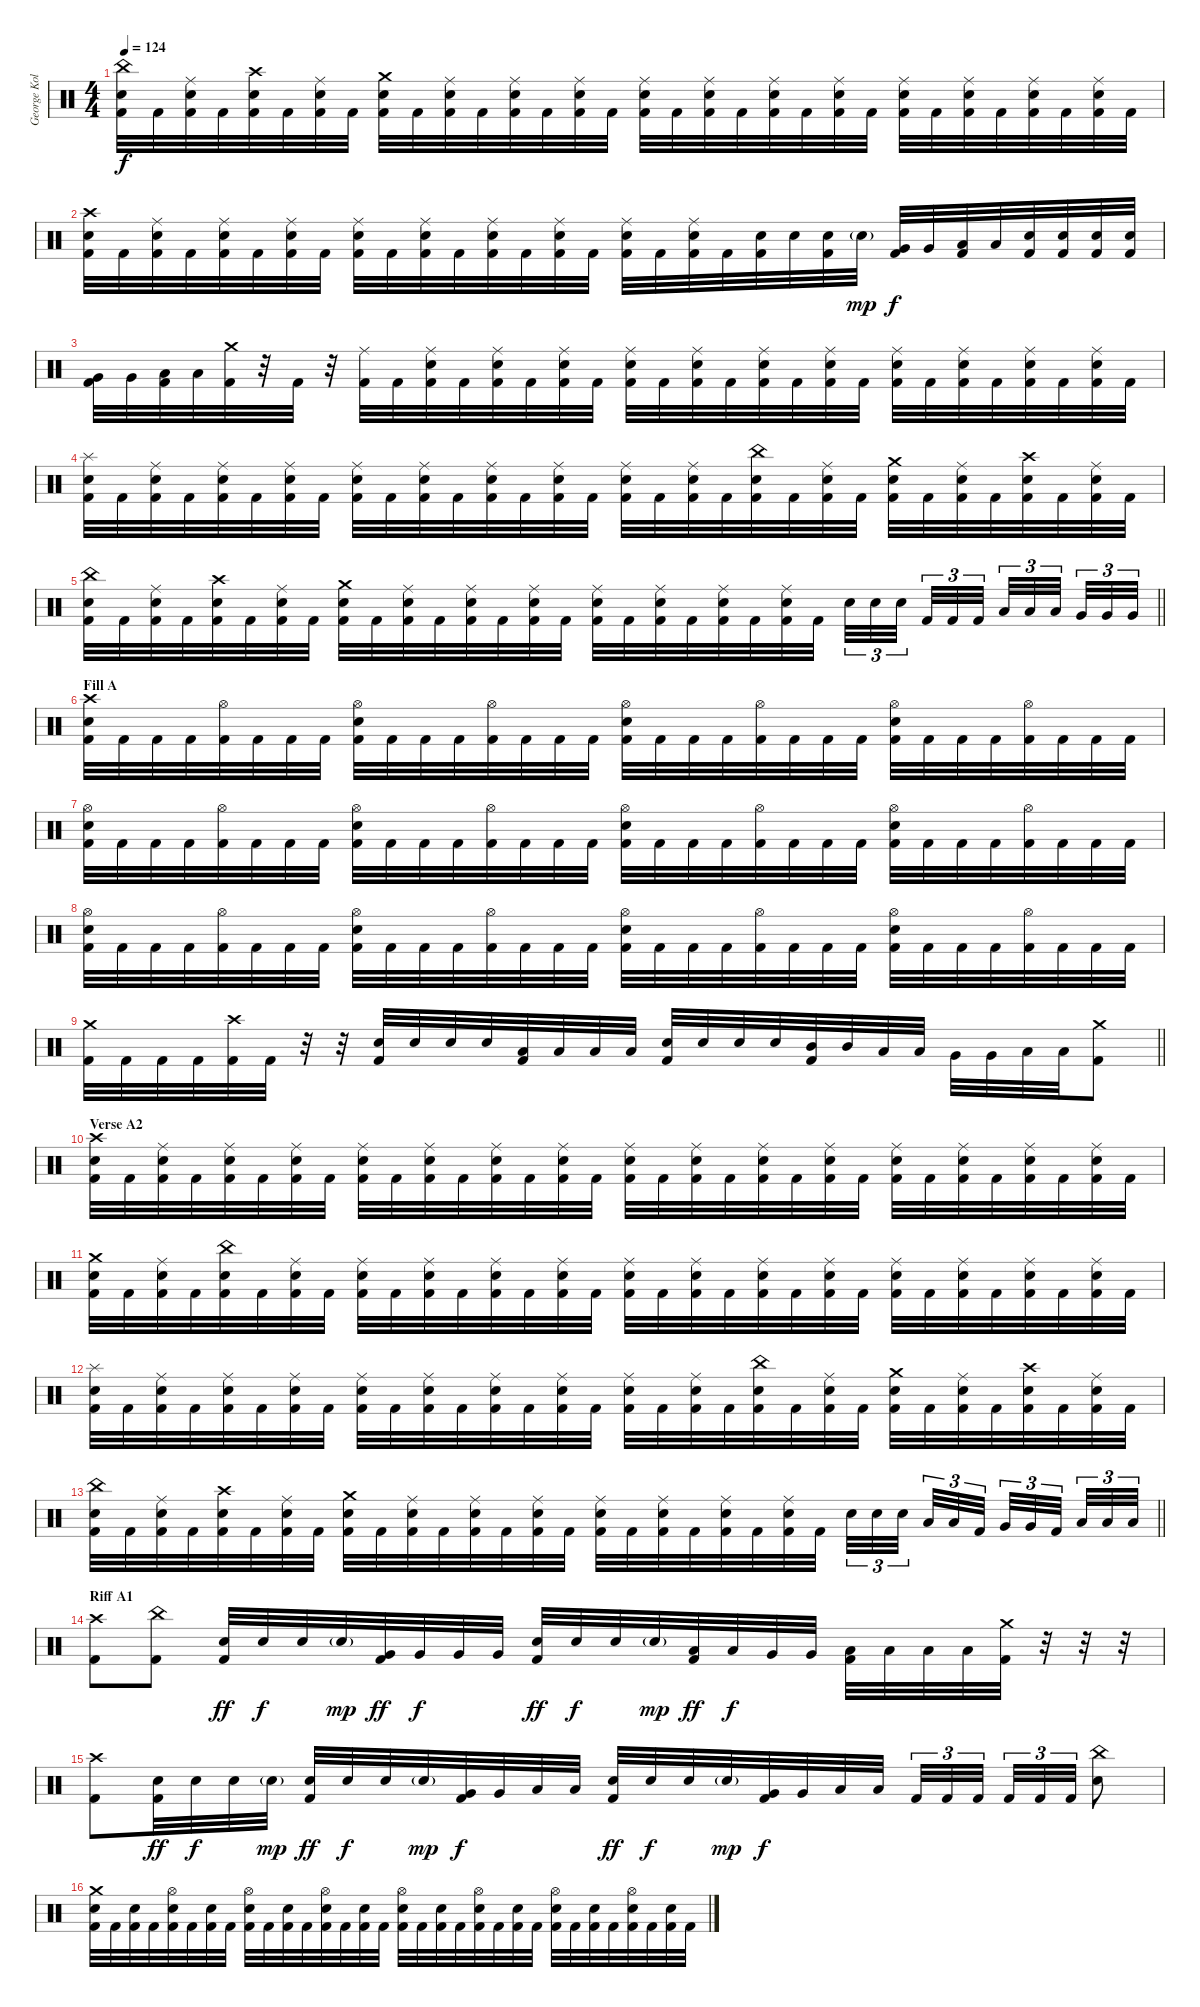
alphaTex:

\track ("George Kollias" "George Kol") {instrument percussion}
\staff {score}
\articulation defaults
\ts (4 4)
\tempo 124
\clef neutral
\ks c
("China (hit)" "Electric Snare (hit)" "Kick (hit) 2").32{dy f} "Kick (hit) 2".32 ("Ride (middle)" "Electric Snare (hit)" "Kick (hit) 2").32 "Kick (hit) 2".32 ("Crash high (hit)" "Electric Snare (hit)" "Kick (hit) 2").32 "Kick (hit) 2".32 ("Ride (middle)" "Electric Snare (hit)" "Kick (hit) 2").32 "Kick (hit) 2".32 ("Crash medium (hit)" "Electric Snare (hit)" "Kick (hit) 2").32 "Kick (hit) 2".32 ("Ride (middle)" "Electric Snare (hit)" "Kick (hit) 2").32 "Kick (hit) 2".32 ("Ride (middle)" "Electric Snare (hit)" "Kick (hit) 2").32 "Kick (hit) 2".32 ("Ride (middle)" "Electric Snare (hit)" "Kick (hit) 2").32 "Kick (hit) 2".32 ("Ride (middle)" "Electric Snare (hit)" "Kick (hit) 2").32 "Kick (hit) 2".32 ("Ride (middle)" "Electric Snare (hit)" "Kick (hit) 2").32 "Kick (hit) 2".32 ("Ride (middle)" "Electric Snare (hit)" "Kick (hit) 2").32 "Kick (hit) 2".32 ("Ride (middle)" "Electric Snare (hit)" "Kick (hit) 2").32 "Kick (hit) 2".32 ("Ride (middle)" "Electric Snare (hit)" "Kick (hit) 2").32 "Kick (hit) 2".32 ("Ride (middle)" "Electric Snare (hit)" "Kick (hit) 2").32 "Kick (hit) 2".32 ("Ride (middle)" "Electric Snare (hit)" "Kick (hit) 2").32 "Kick (hit) 2".32 ("Ride (middle)" "Electric Snare (hit)" "Kick (hit) 2").32 "Kick (hit) 2".32 |
("Crash high (hit)" "Electric Snare (hit)" "Kick (hit) 2").32 "Kick (hit) 2".32 ("Ride (middle)" "Electric Snare (hit)" "Kick (hit) 2").32 "Kick (hit) 2".32 ("Ride (middle)" "Electric Snare (hit)" "Kick (hit) 2").32 "Kick (hit) 2".32 ("Ride (middle)" "Electric Snare (hit)" "Kick (hit) 2").32 "Kick (hit) 2".32 ("Ride (middle)" "Electric Snare (hit)" "Kick (hit) 2").32 "Kick (hit) 2".32 ("Ride (middle)" "Electric Snare (hit)" "Kick (hit) 2").32 "Kick (hit) 2".32 ("Ride (middle)" "Electric Snare (hit)" "Kick (hit) 2").32 "Kick (hit) 2".32 ("Ride (middle)" "Electric Snare (hit)" "Kick (hit) 2").32 "Kick (hit) 2".32 ("Ride (middle)" "Electric Snare (hit)" "Kick (hit) 2").32 "Kick (hit) 2".32 ("Ride (middle)" "Electric Snare (hit)" "Kick (hit) 2").32 "Kick (hit) 2".32 ("Electric Snare (hit)" "Kick (hit) 2").32 "Electric Snare (hit)".32 ("Electric Snare (hit)" "Kick (hit) 2").32 "Electric Snare (hit)"{g}.32{dy mp} ("Very Low Tom (hit)" "Kick (hit) 2").32{dy f} "Very Low Tom (hit)".32 ("Low Floor Tom (hit)" "Kick (hit) 2").32 "Low Floor Tom (hit)".32 ("Electric Snare (hit)" "Kick (hit) 2").32 ("Electric Snare (hit)" "Kick (hit) 2").32 ("Electric Snare (hit)" "Kick (hit) 2").32 ("Electric Snare (hit)" "Kick (hit) 2").32 |
("Very Low Tom (hit)" "Kick (hit) 2").32 "Very Low Tom (hit)".32 ("Low Floor Tom (hit)" "Kick (hit) 2").32 "Low Floor Tom (hit)".32 ("Crash medium (hit)" "Kick (hit) 2").32 r.32 "Kick (hit) 2".32 r.32 ("Ride (middle)" "Kick (hit) 2").32 "Kick (hit) 2".32 ("Ride (middle)" "Electric Snare (hit)" "Kick (hit) 2").32 "Kick (hit) 2".32 ("Ride (middle)" "Electric Snare (hit)" "Kick (hit) 2").32 "Kick (hit) 2".32 ("Ride (middle)" "Electric Snare (hit)" "Kick (hit) 2").32 "Kick (hit) 2".32 ("Ride (middle)" "Electric Snare (hit)" "Kick (hit) 2").32 "Kick (hit) 2".32 ("Ride (middle)" "Electric Snare (hit)" "Kick (hit) 2").32 "Kick (hit) 2".32 ("Ride (middle)" "Electric Snare (hit)" "Kick (hit) 2").32 "Kick (hit) 2".32 ("Ride (middle)" "Electric Snare (hit)" "Kick (hit) 2").32 "Kick (hit) 2".32 ("Ride (middle)" "Electric Snare (hit)" "Kick (hit) 2").32 "Kick (hit) 2".32 ("Ride (middle)" "Electric Snare (hit)" "Kick (hit) 2").32 "Kick (hit) 2".32 ("Ride (middle)" "Electric Snare (hit)" "Kick (hit) 2").32 "Kick (hit) 2".32 ("Ride (middle)" "Electric Snare (hit)" "Kick (hit) 2").32 "Kick (hit) 2".32 |
("Splash (hit)" "Electric Snare (hit)" "Kick (hit) 2").32 "Kick (hit) 2".32 ("Ride (middle)" "Electric Snare (hit)" "Kick (hit) 2").32 "Kick (hit) 2".32 ("Ride (middle)" "Electric Snare (hit)" "Kick (hit) 2").32 "Kick (hit) 2".32 ("Ride (middle)" "Electric Snare (hit)" "Kick (hit) 2").32 "Kick (hit) 2".32 ("Ride (middle)" "Electric Snare (hit)" "Kick (hit) 2").32 "Kick (hit) 2".32 ("Ride (middle)" "Electric Snare (hit)" "Kick (hit) 2").32 "Kick (hit) 2".32 ("Ride (middle)" "Electric Snare (hit)" "Kick (hit) 2").32 "Kick (hit) 2".32 ("Ride (middle)" "Electric Snare (hit)" "Kick (hit) 2").32 "Kick (hit) 2".32 ("Ride (middle)" "Electric Snare (hit)" "Kick (hit) 2").32 "Kick (hit) 2".32 ("Ride (middle)" "Electric Snare (hit)" "Kick (hit) 2").32 "Kick (hit) 2".32 ("China (hit)" "Electric Snare (hit)" "Kick (hit) 2").32 "Kick (hit) 2".32 ("Ride (middle)" "Electric Snare (hit)" "Kick (hit) 2").32 "Kick (hit) 2".32 ("Crash medium (hit)" "Electric Snare (hit)" "Kick (hit) 2").32 "Kick (hit) 2".32 ("Ride (middle)" "Electric Snare (hit)" "Kick (hit) 2").32 "Kick (hit) 2".32 ("Crash high (hit)" "Electric Snare (hit)" "Kick (hit) 2").32 "Kick (hit) 2".32 ("Ride (middle)" "Electric Snare (hit)" "Kick (hit) 2").32 "Kick (hit) 2".32 |
\barLineRight lightlight
("China (hit)" "Electric Snare (hit)" "Kick (hit) 2").32 "Kick (hit) 2".32 ("Ride (middle)" "Electric Snare (hit)" "Kick (hit) 2").32 "Kick (hit) 2".32 ("Crash high (hit)" "Electric Snare (hit)" "Kick (hit) 2").32 "Kick (hit) 2".32 ("Ride (middle)" "Electric Snare (hit)" "Kick (hit) 2").32 "Kick (hit) 2".32 ("Crash medium (hit)" "Electric Snare (hit)" "Kick (hit) 2").32 "Kick (hit) 2".32 ("Ride (middle)" "Electric Snare (hit)" "Kick (hit) 2").32 "Kick (hit) 2".32 ("Ride (middle)" "Electric Snare (hit)" "Kick (hit) 2").32 "Kick (hit) 2".32 ("Ride (middle)" "Electric Snare (hit)" "Kick (hit) 2").32 "Kick (hit) 2".32 ("Ride (middle)" "Electric Snare (hit)" "Kick (hit) 2").32 "Kick (hit) 2".32 ("Ride (middle)" "Electric Snare (hit)" "Kick (hit) 2").32 "Kick (hit) 2".32 ("Ride (middle)" "Electric Snare (hit)" "Kick (hit) 2").32 "Kick (hit) 2".32 ("Ride (middle)" "Electric Snare (hit)" "Kick (hit) 2").32 "Kick (hit) 2".32 "Electric Snare (hit)".32{tu (3 2)} "Electric Snare (hit)".32{tu (3 2)} "Electric Snare (hit)".32{tu (3 2) beam splitsecondary} "Kick (hit) 2".32{tu (3 2)} "Kick (hit) 2".32{tu (3 2)} "Kick (hit) 2".32{tu (3 2) beam splitsecondary} "Low Tom (hit)".32{tu (3 2)} "Low Tom (hit)".32{tu (3 2)} "Low Tom (hit)".32{tu (3 2) beam splitsecondary} "Very Low Tom (hit)".32{tu (3 2)} "Very Low Tom (hit)".32{tu (3 2)} "Very Low Tom (hit)".32{tu (3 2)} |
\section ("" "Fill A")
("Crash high (hit)" "Electric Snare (hit)" "Kick (hit) 2").32 "Kick (hit) 2".32 "Kick (hit) 2".32 "Kick (hit) 2".32 ("Hi-Hat (open)" "Kick (hit) 2").32 "Kick (hit) 2".32 "Kick (hit) 2".32 "Kick (hit) 2".32 ("Hi-Hat (open)" "Electric Snare (hit)" "Kick (hit) 2").32 "Kick (hit) 2".32 "Kick (hit) 2".32 "Kick (hit) 2".32 ("Hi-Hat (open)" "Kick (hit) 2").32 "Kick (hit) 2".32 "Kick (hit) 2".32 "Kick (hit) 2".32 ("Hi-Hat (open)" "Electric Snare (hit)" "Kick (hit) 2").32 "Kick (hit) 2".32 "Kick (hit) 2".32 "Kick (hit) 2".32 ("Hi-Hat (open)" "Kick (hit) 2").32 "Kick (hit) 2".32 "Kick (hit) 2".32 "Kick (hit) 2".32 ("Hi-Hat (open)" "Electric Snare (hit)" "Kick (hit) 2").32 "Kick (hit) 2".32 "Kick (hit) 2".32 "Kick (hit) 2".32 ("Hi-Hat (open)" "Kick (hit) 2").32 "Kick (hit) 2".32 "Kick (hit) 2".32 "Kick (hit) 2".32 |
("Hi-Hat (open)" "Electric Snare (hit)" "Kick (hit) 2").32 "Kick (hit) 2".32 "Kick (hit) 2".32 "Kick (hit) 2".32 ("Hi-Hat (open)" "Kick (hit) 2").32 "Kick (hit) 2".32 "Kick (hit) 2".32 "Kick (hit) 2".32 ("Hi-Hat (open)" "Electric Snare (hit)" "Kick (hit) 2").32 "Kick (hit) 2".32 "Kick (hit) 2".32 "Kick (hit) 2".32 ("Hi-Hat (open)" "Kick (hit) 2").32 "Kick (hit) 2".32 "Kick (hit) 2".32 "Kick (hit) 2".32 ("Hi-Hat (open)" "Electric Snare (hit)" "Kick (hit) 2").32 "Kick (hit) 2".32 "Kick (hit) 2".32 "Kick (hit) 2".32 ("Hi-Hat (open)" "Kick (hit) 2").32 "Kick (hit) 2".32 "Kick (hit) 2".32 "Kick (hit) 2".32 ("Hi-Hat (open)" "Electric Snare (hit)" "Kick (hit) 2").32 "Kick (hit) 2".32 "Kick (hit) 2".32 "Kick (hit) 2".32 ("Hi-Hat (open)" "Kick (hit) 2").32 "Kick (hit) 2".32 "Kick (hit) 2".32 "Kick (hit) 2".32 |
("Hi-Hat (open)" "Electric Snare (hit)" "Kick (hit) 2").32 "Kick (hit) 2".32 "Kick (hit) 2".32 "Kick (hit) 2".32 ("Hi-Hat (open)" "Kick (hit) 2").32 "Kick (hit) 2".32 "Kick (hit) 2".32 "Kick (hit) 2".32 ("Hi-Hat (open)" "Electric Snare (hit)" "Kick (hit) 2").32 "Kick (hit) 2".32 "Kick (hit) 2".32 "Kick (hit) 2".32 ("Hi-Hat (open)" "Kick (hit) 2").32 "Kick (hit) 2".32 "Kick (hit) 2".32 "Kick (hit) 2".32 ("Hi-Hat (open)" "Electric Snare (hit)" "Kick (hit) 2").32 "Kick (hit) 2".32 "Kick (hit) 2".32 "Kick (hit) 2".32 ("Hi-Hat (open)" "Kick (hit) 2").32 "Kick (hit) 2".32 "Kick (hit) 2".32 "Kick (hit) 2".32 ("Hi-Hat (open)" "Electric Snare (hit)" "Kick (hit) 2").32 "Kick (hit) 2".32 "Kick (hit) 2".32 "Kick (hit) 2".32 ("Hi-Hat (open)" "Kick (hit) 2").32 "Kick (hit) 2".32 "Kick (hit) 2".32 "Kick (hit) 2".32 |
\barLineRight lightlight
("Crash medium (hit)" "Kick (hit) 2").32 "Kick (hit) 2".32 "Kick (hit) 2".32 "Kick (hit) 2".32 ("Crash high (hit)" "Kick (hit) 2").32 "Kick (hit) 2".32 r.32 r.32 ("Electric Snare (hit)" "Kick (hit) 2").32 "Electric Snare (hit)".32 "Electric Snare (hit)".32 "Electric Snare (hit)".32 ("Low Tom (hit)" "Kick (hit) 2").32 "Low Tom (hit)".32 "Low Tom (hit)".32 "Low Tom (hit)".32 ("Electric Snare (hit)" "Kick (hit) 2").32 "Electric Snare (hit)".32 "Electric Snare (hit)".32 "Electric Snare (hit)".32 ("Mid Tom (hit)" "Kick (hit) 2").32 "Mid Tom (hit)".32 "Low Tom (hit)".32 "Low Tom (hit)".32 "Very Low Tom (hit)".32 "Very Low Tom (hit)".32 "Low Floor Tom (hit)".32 "Low Floor Tom (hit)".32 ("Crash medium (hit)" "Kick (hit) 2").8 |
\section ("" "Verse A2")
("Crash high (hit)" "Electric Snare (hit)" "Kick (hit) 2").32 "Kick (hit) 2".32 ("Ride (middle)" "Electric Snare (hit)" "Kick (hit) 2").32 "Kick (hit) 2".32 ("Ride (middle)" "Electric Snare (hit)" "Kick (hit) 2").32 "Kick (hit) 2".32 ("Ride (middle)" "Electric Snare (hit)" "Kick (hit) 2").32 "Kick (hit) 2".32 ("Ride (middle)" "Electric Snare (hit)" "Kick (hit) 2").32 "Kick (hit) 2".32 ("Ride (middle)" "Electric Snare (hit)" "Kick (hit) 2").32 "Kick (hit) 2".32 ("Ride (middle)" "Electric Snare (hit)" "Kick (hit) 2").32 "Kick (hit) 2".32 ("Ride (middle)" "Electric Snare (hit)" "Kick (hit) 2").32 "Kick (hit) 2".32 ("Ride (middle)" "Electric Snare (hit)" "Kick (hit) 2").32 "Kick (hit) 2".32 ("Ride (middle)" "Electric Snare (hit)" "Kick (hit) 2").32 "Kick (hit) 2".32 ("Ride (middle)" "Electric Snare (hit)" "Kick (hit) 2").32 "Kick (hit) 2".32 ("Ride (middle)" "Electric Snare (hit)" "Kick (hit) 2").32 "Kick (hit) 2".32 ("Ride (middle)" "Electric Snare (hit)" "Kick (hit) 2").32 "Kick (hit) 2".32 ("Ride (middle)" "Electric Snare (hit)" "Kick (hit) 2").32 "Kick (hit) 2".32 ("Ride (middle)" "Electric Snare (hit)" "Kick (hit) 2").32 "Kick (hit) 2".32 ("Ride (middle)" "Electric Snare (hit)" "Kick (hit) 2").32 "Kick (hit) 2".32 |
("Crash medium (hit)" "Electric Snare (hit)" "Kick (hit) 2").32 "Kick (hit) 2".32 ("Ride (middle)" "Electric Snare (hit)" "Kick (hit) 2").32 "Kick (hit) 2".32 ("China (hit)" "Electric Snare (hit)" "Kick (hit) 2").32 "Kick (hit) 2".32 ("Ride (middle)" "Electric Snare (hit)" "Kick (hit) 2").32 "Kick (hit) 2".32 ("Ride (middle)" "Electric Snare (hit)" "Kick (hit) 2").32 "Kick (hit) 2".32 ("Ride (middle)" "Electric Snare (hit)" "Kick (hit) 2").32 "Kick (hit) 2".32 ("Ride (middle)" "Electric Snare (hit)" "Kick (hit) 2").32 "Kick (hit) 2".32 ("Ride (middle)" "Electric Snare (hit)" "Kick (hit) 2").32 "Kick (hit) 2".32 ("Ride (middle)" "Electric Snare (hit)" "Kick (hit) 2").32 "Kick (hit) 2".32 ("Ride (middle)" "Electric Snare (hit)" "Kick (hit) 2").32 "Kick (hit) 2".32 ("Ride (middle)" "Electric Snare (hit)" "Kick (hit) 2").32 "Kick (hit) 2".32 ("Ride (middle)" "Electric Snare (hit)" "Kick (hit) 2").32 "Kick (hit) 2".32 ("Ride (middle)" "Electric Snare (hit)" "Kick (hit) 2").32 "Kick (hit) 2".32 ("Ride (middle)" "Electric Snare (hit)" "Kick (hit) 2").32 "Kick (hit) 2".32 ("Ride (middle)" "Electric Snare (hit)" "Kick (hit) 2").32 "Kick (hit) 2".32 ("Ride (middle)" "Electric Snare (hit)" "Kick (hit) 2").32 "Kick (hit) 2".32 |
("Splash (hit)" "Electric Snare (hit)" "Kick (hit) 2").32 "Kick (hit) 2".32 ("Ride (middle)" "Electric Snare (hit)" "Kick (hit) 2").32 "Kick (hit) 2".32 ("Ride (middle)" "Electric Snare (hit)" "Kick (hit) 2").32 "Kick (hit) 2".32 ("Ride (middle)" "Electric Snare (hit)" "Kick (hit) 2").32 "Kick (hit) 2".32 ("Ride (middle)" "Electric Snare (hit)" "Kick (hit) 2").32 "Kick (hit) 2".32 ("Ride (middle)" "Electric Snare (hit)" "Kick (hit) 2").32 "Kick (hit) 2".32 ("Ride (middle)" "Electric Snare (hit)" "Kick (hit) 2").32 "Kick (hit) 2".32 ("Ride (middle)" "Electric Snare (hit)" "Kick (hit) 2").32 "Kick (hit) 2".32 ("Ride (middle)" "Electric Snare (hit)" "Kick (hit) 2").32 "Kick (hit) 2".32 ("Ride (middle)" "Electric Snare (hit)" "Kick (hit) 2").32 "Kick (hit) 2".32 ("China (hit)" "Electric Snare (hit)" "Kick (hit) 2").32 "Kick (hit) 2".32 ("Ride (middle)" "Electric Snare (hit)" "Kick (hit) 2").32 "Kick (hit) 2".32 ("Crash medium (hit)" "Electric Snare (hit)" "Kick (hit) 2").32 "Kick (hit) 2".32 ("Ride (middle)" "Electric Snare (hit)" "Kick (hit) 2").32 "Kick (hit) 2".32 ("Crash high (hit)" "Electric Snare (hit)" "Kick (hit) 2").32 "Kick (hit) 2".32 ("Ride (middle)" "Electric Snare (hit)" "Kick (hit) 2").32 "Kick (hit) 2".32 |
\barLineRight lightlight
("China (hit)" "Electric Snare (hit)" "Kick (hit) 2").32 "Kick (hit) 2".32 ("Ride (middle)" "Electric Snare (hit)" "Kick (hit) 2").32 "Kick (hit) 2".32 ("Crash high (hit)" "Electric Snare (hit)" "Kick (hit) 2").32 "Kick (hit) 2".32 ("Ride (middle)" "Electric Snare (hit)" "Kick (hit) 2").32 "Kick (hit) 2".32 ("Crash medium (hit)" "Electric Snare (hit)" "Kick (hit) 2").32 "Kick (hit) 2".32 ("Ride (middle)" "Electric Snare (hit)" "Kick (hit) 2").32 "Kick (hit) 2".32 ("Ride (middle)" "Electric Snare (hit)" "Kick (hit) 2").32 "Kick (hit) 2".32 ("Ride (middle)" "Electric Snare (hit)" "Kick (hit) 2").32 "Kick (hit) 2".32 ("Ride (middle)" "Electric Snare (hit)" "Kick (hit) 2").32 "Kick (hit) 2".32 ("Ride (middle)" "Electric Snare (hit)" "Kick (hit) 2").32 "Kick (hit) 2".32 ("Ride (middle)" "Electric Snare (hit)" "Kick (hit) 2").32 "Kick (hit) 2".32 ("Ride (middle)" "Electric Snare (hit)" "Kick (hit) 2").32 "Kick (hit) 2".32 "Electric Snare (hit)".32{tu (3 2)} "Electric Snare (hit)".32{tu (3 2)} "Electric Snare (hit)".32{tu (3 2) beam splitsecondary} "Low Tom (hit)".32{tu (3 2)} "Low Tom (hit)".32{tu (3 2)} "Kick (hit) 2".32{tu (3 2) beam splitsecondary} "Very Low Tom (hit)".32{tu (3 2)} "Very Low Tom (hit)".32{tu (3 2)} "Kick (hit) 2".32{tu (3 2) beam splitsecondary} "Low Floor Tom (hit)".32{tu (3 2)} "Low Floor Tom (hit)".32{tu (3 2)} "Low Floor Tom (hit)".32{tu (3 2)} |
\section ("" "Riff A1")
("Crash high (hit)" "Kick (hit) 2").8 ("China (hit)" "Kick (hit) 2").8 ("Electric Snare (hit)" "Kick (hit) 2").32{dy ff} "Electric Snare (hit)".32{dy f} "Electric Snare (hit)".32 "Electric Snare (hit)"{g}.32{dy mp} ("Very Low Tom (hit)" "Kick (hit) 2").32{dy ff} "Very Low Tom (hit)".32{dy f} "Very Low Tom (hit)".32 "Very Low Tom (hit)".32 ("Electric Snare (hit)" "Kick (hit) 2").32{dy ff} "Electric Snare (hit)".32{dy f} "Electric Snare (hit)".32 "Electric Snare (hit)"{g}.32{dy mp} ("Low Tom (hit)" "Kick (hit) 2").32{dy ff} "Low Tom (hit)".32{dy f} "Very Low Tom (hit)".32 "Very Low Tom (hit)".32 ("Low Floor Tom (hit)" "Kick (hit) 2").32 "Low Floor Tom (hit)".32 "Low Floor Tom (hit)".32 "Low Floor Tom (hit)".32 ("Crash medium (hit)" "Kick (hit) 2").32 r.32 r.32 r.32 |
("Crash high (hit)" "Kick (hit) 2").8 ("Electric Snare (hit)" "Kick (hit) 2").32{dy ff} "Electric Snare (hit)".32{dy f} "Electric Snare (hit)".32 "Electric Snare (hit)"{g}.32{dy mp} ("Electric Snare (hit)" "Kick (hit) 2").32{dy ff} "Electric Snare (hit)".32{dy f} "Electric Snare (hit)".32 "Electric Snare (hit)"{g}.32{dy mp} ("Very Low Tom (hit)" "Kick (hit) 2").32{dy f} "Very Low Tom (hit)".32 "Low Floor Tom (hit)".32 "Low Floor Tom (hit)".32 ("Electric Snare (hit)" "Kick (hit) 2").32{dy ff} "Electric Snare (hit)".32{dy f} "Electric Snare (hit)".32 "Electric Snare (hit)"{g}.32{dy mp} ("Very Low Tom (hit)" "Kick (hit) 2").32{dy f} "Very Low Tom (hit)".32 "Low Floor Tom (hit)".32 "Low Floor Tom (hit)".32 "Kick (hit) 2".32{tu (3 2)} "Kick (hit) 2".32{tu (3 2)} "Kick (hit) 2".32{tu (3 2) beam splitsecondary} "Kick (hit) 2".32{tu (3 2)} "Kick (hit) 2".32{tu (3 2)} "Kick (hit) 2".32{tu (3 2)} ("China (hit)" "Electric Snare (hit)").8 |
("Crash medium (hit)" "Electric Snare (hit)" "Kick (hit) 2").32 "Kick (hit) 2".32 ("Electric Snare (hit)" "Kick (hit) 2").32 "Kick (hit) 2".32 ("Hi-Hat (open)" "Electric Snare (hit)" "Kick (hit) 2").32 "Kick (hit) 2".32 ("Electric Snare (hit)" "Kick (hit) 2").32 "Kick (hit) 2".32 ("Hi-Hat (open)" "Electric Snare (hit)" "Kick (hit) 2").32 "Kick (hit) 2".32 ("Electric Snare (hit)" "Kick (hit) 2").32 "Kick (hit) 2".32 ("Hi-Hat (open)" "Electric Snare (hit)" "Kick (hit) 2").32 "Kick (hit) 2".32 ("Electric Snare (hit)" "Kick (hit) 2").32 "Kick (hit) 2".32 ("Hi-Hat (open)" "Electric Snare (hit)" "Kick (hit) 2").32 "Kick (hit) 2".32 ("Electric Snare (hit)" "Kick (hit) 2").32 "Kick (hit) 2".32 ("Hi-Hat (open)" "Electric Snare (hit)" "Kick (hit) 2").32 "Kick (hit) 2".32 ("Electric Snare (hit)" "Kick (hit) 2").32 "Kick (hit) 2".32 ("Hi-Hat (open)" "Electric Snare (hit)" "Kick (hit) 2").32 "Kick (hit) 2".32 ("Electric Snare (hit)" "Kick (hit) 2").32 "Kick (hit) 2".32 ("Hi-Hat (open)" "Electric Snare (hit)" "Kick (hit) 2").32 "Kick (hit) 2".32 ("Electric Snare (hit)" "Kick (hit) 2").32 "Kick (hit) 2".32
